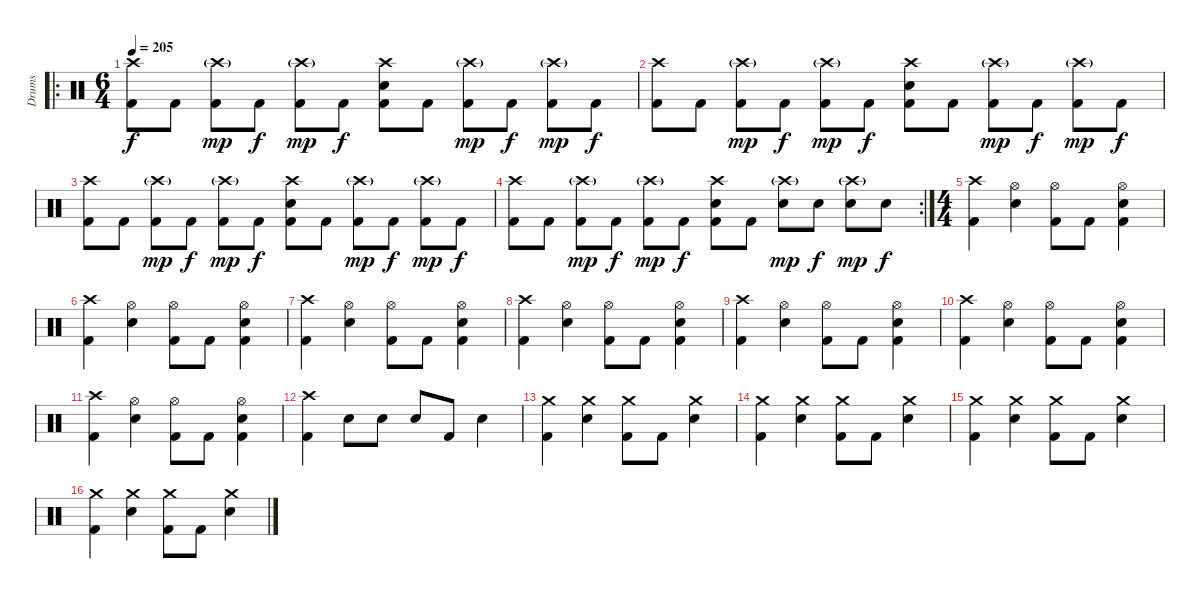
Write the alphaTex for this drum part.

\track ("Drums" "Drums") {instrument percussion}
\staff {score}
\articulation defaults
\ro
\ts (6 4)
\tempo 205
\clef neutral
\ks c
("Crash high (hit)" "Kick (hit) 2").8{dy f} "Kick (hit) 2".8 ("Crash high (hit)"{g} "Kick (hit) 2").8{dy mp} "Kick (hit) 2".8{dy f} ("Crash high (hit)"{g} "Kick (hit) 2").8{dy mp} "Kick (hit) 2".8{dy f} ("Crash high (hit)" "Electric Snare (hit)" "Kick (hit) 2").8 "Kick (hit) 2".8 ("Crash high (hit)"{g} "Kick (hit) 2").8{dy mp} "Kick (hit) 2".8{dy f} ("Crash high (hit)"{g} "Kick (hit) 2").8{dy mp} "Kick (hit) 2".8{dy f} |
("Crash high (hit)" "Kick (hit) 2").8 "Kick (hit) 2".8 ("Crash high (hit)"{g} "Kick (hit) 2").8{dy mp} "Kick (hit) 2".8{dy f} ("Crash high (hit)"{g} "Kick (hit) 2").8{dy mp} "Kick (hit) 2".8{dy f} ("Crash high (hit)" "Electric Snare (hit)" "Kick (hit) 2").8 "Kick (hit) 2".8 ("Crash high (hit)"{g} "Kick (hit) 2").8{dy mp} "Kick (hit) 2".8{dy f} ("Crash high (hit)"{g} "Kick (hit) 2").8{dy mp} "Kick (hit) 2".8{dy f} |
("Crash high (hit)" "Kick (hit) 2").8 "Kick (hit) 2".8 ("Crash high (hit)"{g} "Kick (hit) 2").8{dy mp} "Kick (hit) 2".8{dy f} ("Crash high (hit)"{g} "Kick (hit) 2").8{dy mp} "Kick (hit) 2".8{dy f} ("Crash high (hit)" "Electric Snare (hit)" "Kick (hit) 2").8 "Kick (hit) 2".8 ("Crash high (hit)"{g} "Kick (hit) 2").8{dy mp} "Kick (hit) 2".8{dy f} ("Crash high (hit)"{g} "Kick (hit) 2").8{dy mp} "Kick (hit) 2".8{dy f} |
\rc 2
("Crash high (hit)" "Kick (hit) 2").8 "Kick (hit) 2".8 ("Crash high (hit)"{g} "Kick (hit) 2").8{dy mp} "Kick (hit) 2".8{dy f} ("Crash high (hit)"{g} "Kick (hit) 2").8{dy mp} "Kick (hit) 2".8{dy f} ("Crash high (hit)" "Electric Snare (hit)" "Kick (hit) 2").8 "Kick (hit) 2".8 ("Crash high (hit)"{g} "Electric Snare (hit)").8{dy mp} "Electric Snare (hit)".8{dy f} ("Crash high (hit)"{g} "Electric Snare (hit)").8{dy mp} "Electric Snare (hit)".8{dy f} |
\ts (4 4)
("Crash high (hit)" "Kick (hit) 2").4 ("Hi-Hat (open)" "Electric Snare (hit)").4 ("Hi-Hat (open)" "Kick (hit) 2").8 "Kick (hit) 2".8 ("Hi-Hat (open)" "Electric Snare (hit)" "Kick (hit) 2").4 |
("Crash high (hit)" "Kick (hit) 2").4 ("Hi-Hat (open)" "Electric Snare (hit)").4 ("Hi-Hat (open)" "Kick (hit) 2").8 "Kick (hit) 2".8 ("Hi-Hat (open)" "Electric Snare (hit)" "Kick (hit) 2").4 |
("Crash high (hit)" "Kick (hit) 2").4 ("Hi-Hat (open)" "Electric Snare (hit)").4 ("Hi-Hat (open)" "Kick (hit) 2").8 "Kick (hit) 2".8 ("Hi-Hat (open)" "Electric Snare (hit)" "Kick (hit) 2").4 |
("Crash high (hit)" "Kick (hit) 2").4 ("Hi-Hat (open)" "Electric Snare (hit)").4 ("Hi-Hat (open)" "Kick (hit) 2").8 "Kick (hit) 2".8 ("Hi-Hat (open)" "Electric Snare (hit)" "Kick (hit) 2").4 |
("Crash high (hit)" "Kick (hit) 2").4 ("Hi-Hat (open)" "Electric Snare (hit)").4 ("Hi-Hat (open)" "Kick (hit) 2").8 "Kick (hit) 2".8 ("Hi-Hat (open)" "Electric Snare (hit)" "Kick (hit) 2").4 |
("Crash high (hit)" "Kick (hit) 2").4 ("Hi-Hat (open)" "Electric Snare (hit)").4 ("Hi-Hat (open)" "Kick (hit) 2").8 "Kick (hit) 2".8 ("Hi-Hat (open)" "Electric Snare (hit)" "Kick (hit) 2").4 |
("Crash high (hit)" "Kick (hit) 2").4 ("Hi-Hat (open)" "Electric Snare (hit)").4 ("Hi-Hat (open)" "Kick (hit) 2").8 "Kick (hit) 2".8 ("Hi-Hat (open)" "Electric Snare (hit)" "Kick (hit) 2").4 |
("Crash high (hit)" "Kick (hit) 2").4 "Electric Snare (hit)".8 "Electric Snare (hit)".8 "Electric Snare (hit)".8 "Kick (hit) 2".8 "Electric Snare (hit)".4 |
("Crash medium (hit)" "Kick (hit) 2").4 ("Crash medium (hit)" "Electric Snare (hit)").4 ("Crash medium (hit)" "Kick (hit) 2").8 "Kick (hit) 2".8 ("Crash medium (hit)" "Electric Snare (hit)").4 |
("Crash medium (hit)" "Kick (hit) 2").4 ("Crash medium (hit)" "Electric Snare (hit)").4 ("Crash medium (hit)" "Kick (hit) 2").8 "Kick (hit) 2".8 ("Crash medium (hit)" "Electric Snare (hit)").4 |
("Crash medium (hit)" "Kick (hit) 2").4 ("Crash medium (hit)" "Electric Snare (hit)").4 ("Crash medium (hit)" "Kick (hit) 2").8 "Kick (hit) 2".8 ("Crash medium (hit)" "Electric Snare (hit)").4 |
("Crash medium (hit)" "Kick (hit) 2").4 ("Crash medium (hit)" "Electric Snare (hit)").4 ("Crash medium (hit)" "Kick (hit) 2").8 "Kick (hit) 2".8 ("Crash medium (hit)" "Electric Snare (hit)").4
